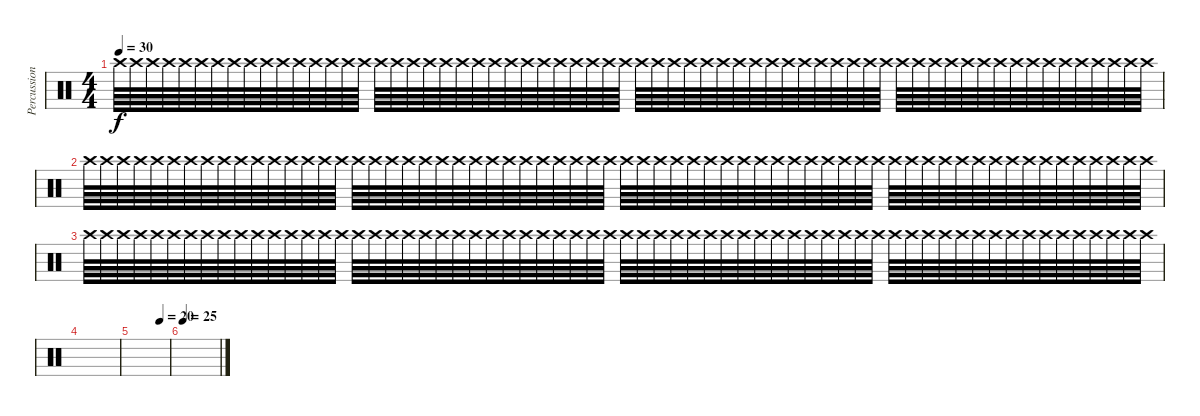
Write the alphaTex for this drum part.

\track ("Percussion" "Percussion") {instrument percussion}
\staff {score}
\articulation defaults
\ts (4 4)
\tempo 30
\clef neutral
\ks c "Crash high (hit)".64{dy f} "Crash high (hit)".64 "Crash high (hit)".64 "Crash high (hit)".64 "Crash high (hit)".64 "Crash high (hit)".64 "Crash high (hit)".64 "Crash high (hit)".64 "Crash high (hit)".64 "Crash high (hit)".64 "Crash high (hit)".64 "Crash high (hit)".64 "Crash high (hit)".64 "Crash high (hit)".64 "Crash high (hit)".64 "Crash high (hit)".64 "Crash high (hit)".64 "Crash high (hit)".64 "Crash high (hit)".64 "Crash high (hit)".64 "Crash high (hit)".64 "Crash high (hit)".64 "Crash high (hit)".64 "Crash high (hit)".64 "Crash high (hit)".64 "Crash high (hit)".64 "Crash high (hit)".64 "Crash high (hit)".64 "Crash high (hit)".64 "Crash high (hit)".64 "Crash high (hit)".64 "Crash high (hit)".64 "Crash high (hit)".64{volume 2} "Crash high (hit)".64 "Crash high (hit)".64 "Crash high (hit)".64 "Crash high (hit)".64 "Crash high (hit)".64 "Crash high (hit)".64 "Crash high (hit)".64 "Crash high (hit)".64 "Crash high (hit)".64 "Crash high (hit)".64 "Crash high (hit)".64 "Crash high (hit)".64 "Crash high (hit)".64 "Crash high (hit)".64 "Crash high (hit)".64 "Crash high (hit)".64{volume 1} "Crash high (hit)".64 "Crash high (hit)".64 "Crash high (hit)".64 "Crash high (hit)".64 "Crash high (hit)".64 "Crash high (hit)".64 "Crash high (hit)".64 "Crash high (hit)".64 "Crash high (hit)".64 "Crash high (hit)".64 "Crash high (hit)".64 "Crash high (hit)".64 "Crash high (hit)".64 "Crash high (hit)".64 "Crash high (hit)".64
|
"Crash high (hit)".64 "Crash high (hit)".64 "Crash high (hit)".64 "Crash high (hit)".64 "Crash high (hit)".64 "Crash high (hit)".64 "Crash high (hit)".64 "Crash high (hit)".64 "Crash high (hit)".64 "Crash high (hit)".64 "Crash high (hit)".64 "Crash high (hit)".64 "Crash high (hit)".64 "Crash high (hit)".64 "Crash high (hit)".64 "Crash high (hit)".64 "Crash high (hit)".64 "Crash high (hit)".64 "Crash high (hit)".64 "Crash high (hit)".64 "Crash high (hit)".64 "Crash high (hit)".64 "Crash high (hit)".64 "Crash high (hit)".64 "Crash high (hit)".64 "Crash high (hit)".64 "Crash high (hit)".64 "Crash high (hit)".64 "Crash high (hit)".64 "Crash high (hit)".64 "Crash high (hit)".64 "Crash high (hit)".64 "Crash high (hit)".64 "Crash high (hit)".64 "Crash high (hit)".64 "Crash high (hit)".64 "Crash high (hit)".64 "Crash high (hit)".64 "Crash high (hit)".64 "Crash high (hit)".64 "Crash high (hit)".64 "Crash high (hit)".64 "Crash high (hit)".64 "Crash high (hit)".64 "Crash high (hit)".64 "Crash high (hit)".64 "Crash high (hit)".64 "Crash high (hit)".64 "Crash high (hit)".64{volume 2} "Crash high (hit)".64 "Crash high (hit)".64 "Crash high (hit)".64 "Crash high (hit)".64 "Crash high (hit)".64 "Crash high (hit)".64 "Crash high (hit)".64 "Crash high (hit)".64 "Crash high (hit)".64 "Crash high (hit)".64 "Crash high (hit)".64 "Crash high (hit)".64 "Crash high (hit)".64 "Crash high (hit)".64 "Crash high (hit)".64 |
"Crash high (hit)".64{volume 0} "Crash high (hit)".64 "Crash high (hit)".64 "Crash high (hit)".64 "Crash high (hit)".64 "Crash high (hit)".64 "Crash high (hit)".64 "Crash high (hit)".64 "Crash high (hit)".64 "Crash high (hit)".64 "Crash high (hit)".64 "Crash high (hit)".64 "Crash high (hit)".64 "Crash high (hit)".64 "Crash high (hit)".64 "Crash high (hit)".64 "Crash high (hit)".64 "Crash high (hit)".64 "Crash high (hit)".64 "Crash high (hit)".64 "Crash high (hit)".64 "Crash high (hit)".64 "Crash high (hit)".64 "Crash high (hit)".64 "Crash high (hit)".64 "Crash high (hit)".64 "Crash high (hit)".64 "Crash high (hit)".64 "Crash high (hit)".64 "Crash high (hit)".64 "Crash high (hit)".64 "Crash high (hit)".64 "Crash high (hit)".64 "Crash high (hit)".64 "Crash high (hit)".64 "Crash high (hit)".64 "Crash high (hit)".64 "Crash high (hit)".64 "Crash high (hit)".64 "Crash high (hit)".64 "Crash high (hit)".64 "Crash high (hit)".64 "Crash high (hit)".64 "Crash high (hit)".64 "Crash high (hit)".64 "Crash high (hit)".64 "Crash high (hit)".64 "Crash high (hit)".64 "Crash high (hit)".64 "Crash high (hit)".64 "Crash high (hit)".64 "Crash high (hit)".64 "Crash high (hit)".64 "Crash high (hit)".64 "Crash high (hit)".64 "Crash high (hit)".64 "Crash high (hit)".64 "Crash high (hit)".64 "Crash high (hit)".64 "Crash high (hit)".64 "Crash high (hit)".64 "Crash high (hit)".64 "Crash high (hit)".64 "Crash high (hit)".64 |
|
\tempo (20 0.75)
|
\tempo 25
